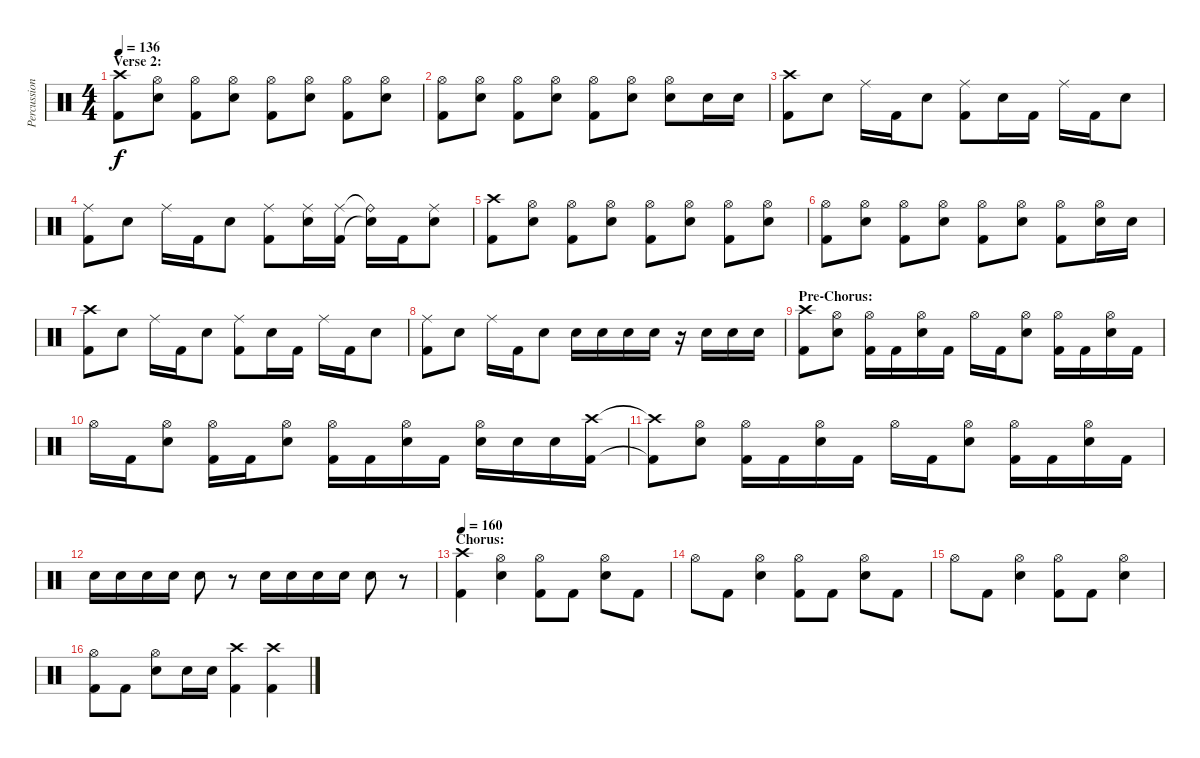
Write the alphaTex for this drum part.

\track ("Percussion" "Percussion") {instrument percussion}
\staff {score}
\articulation defaults
\ts (4 4)
\section ("" "Verse 2:")
\tempo 136
\clef neutral
\ks c
("Crash high (hit)" "Kick (hit) 2").8{dy f} ("Hi-Hat (open)" "Electric Snare (hit)").8 ("Hi-Hat (open)" "Kick (hit) 2").8 ("Hi-Hat (open)" "Electric Snare (hit)").8 ("Hi-Hat (open)" "Kick (hit) 2").8 ("Hi-Hat (open)" "Electric Snare (hit)").8 ("Hi-Hat (open)" "Kick (hit) 2").8 ("Hi-Hat (open)" "Electric Snare (hit)").8 |
("Hi-Hat (open)" "Kick (hit) 2").8 ("Hi-Hat (open)" "Electric Snare (hit)").8 ("Hi-Hat (open)" "Kick (hit) 2").8 ("Hi-Hat (open)" "Electric Snare (hit)").8 ("Hi-Hat (open)" "Kick (hit) 2").8 ("Hi-Hat (open)" "Electric Snare (hit)").8 ("Hi-Hat (open)" "Electric Snare (hit)").8 "Electric Snare (hit)".16 "Electric Snare (hit)".16 |
("Crash high (hit)" "Kick (hit) 2").8 "Electric Snare (hit)".8 "Ride (middle)".16 "Kick (hit) 2".16 "Electric Snare (hit)".8 ("Ride (middle)" "Kick (hit) 2").8 "Electric Snare (hit)".16 "Kick (hit) 2".16 "Ride (middle)".16 "Kick (hit) 2".16 "Electric Snare (hit)".8 |
("Ride (middle)" "Kick (hit) 2").8 "Electric Snare (hit)".8 "Ride (middle)".16 "Kick (hit) 2".16 "Electric Snare (hit)".8 ("Ride (middle)" "Kick (hit) 2").8 ("Ride (middle)" "Electric Snare (hit)").16 ("Ride (middle)" "Kick (hit) 2").16 ("Ride (bell)"{t} "Snare (hit)"{t}).16 "Kick (hit) 2".16 ("Ride (middle)" "Electric Snare (hit)").8 |
("Crash high (hit)" "Kick (hit) 2").8 ("Hi-Hat (open)" "Electric Snare (hit)").8 ("Hi-Hat (open)" "Kick (hit) 2").8 ("Hi-Hat (open)" "Electric Snare (hit)").8 ("Hi-Hat (open)" "Kick (hit) 2").8 ("Hi-Hat (open)" "Electric Snare (hit)").8 ("Hi-Hat (open)" "Kick (hit) 2").8 ("Hi-Hat (open)" "Electric Snare (hit)").8 |
("Hi-Hat (open)" "Kick (hit) 2").8 ("Hi-Hat (open)" "Electric Snare (hit)").8 ("Hi-Hat (open)" "Kick (hit) 2").8 ("Hi-Hat (open)" "Electric Snare (hit)").8 ("Hi-Hat (open)" "Kick (hit) 2").8 ("Hi-Hat (open)" "Electric Snare (hit)").8 ("Hi-Hat (open)" "Kick (hit) 2").8 ("Hi-Hat (open)" "Electric Snare (hit)").16 "Electric Snare (hit)".16 |
("Crash high (hit)" "Kick (hit) 2").8 "Electric Snare (hit)".8 "Ride (middle)".16 "Kick (hit) 2".16 "Electric Snare (hit)".8 ("Ride (middle)" "Kick (hit) 2").8 "Electric Snare (hit)".16 "Kick (hit) 2".16 "Ride (middle)".16 "Kick (hit) 2".16 "Electric Snare (hit)".8 |
("Ride (middle)" "Kick (hit) 2").8 "Electric Snare (hit)".8 "Ride (middle)".16 "Kick (hit) 2".16 "Electric Snare (hit)".8 "Electric Snare (hit)".16 "Electric Snare (hit)".16 "Electric Snare (hit)".16 "Electric Snare (hit)".16 r.16 "Electric Snare (hit)".16 "Electric Snare (hit)".16 "Electric Snare (hit)".16 |
\section ("" "Pre-Chorus:")
("Crash high (hit)" "Kick (hit) 2").8 ("Hi-Hat (open)" "Electric Snare (hit)").8 ("Hi-Hat (open)" "Kick (hit) 2").16 "Kick (hit) 2".16 ("Hi-Hat (open)" "Electric Snare (hit)").16 "Kick (hit) 2".16 "Hi-Hat (open)".16 "Kick (hit) 2".16 ("Hi-Hat (open)" "Electric Snare (hit)").8 ("Hi-Hat (open)" "Kick (hit) 2").16 "Kick (hit) 2".16 ("Hi-Hat (open)" "Electric Snare (hit)").16 "Kick (hit) 2".16 |
"Hi-Hat (open)".16 "Kick (hit) 2".16 ("Hi-Hat (open)" "Electric Snare (hit)").8 ("Hi-Hat (open)" "Kick (hit) 2").16 "Kick (hit) 2".16 ("Hi-Hat (open)" "Electric Snare (hit)").8 ("Hi-Hat (open)" "Kick (hit) 2").16 "Kick (hit) 2".16 ("Hi-Hat (open)" "Electric Snare (hit)").16 "Kick (hit) 2".16 ("Hi-Hat (open)" "Electric Snare (hit)").16 "Electric Snare (hit)".16 "Electric Snare (hit)".16 ("Crash high (hit)" "Kick (hit) 2").16 |
("Crash high (hit)"{t} "Kick (hit) 2"{t}).8 ("Hi-Hat (open)" "Electric Snare (hit)").8 ("Hi-Hat (open)" "Kick (hit) 2").16 "Kick (hit) 2".16 ("Hi-Hat (open)" "Electric Snare (hit)").16 "Kick (hit) 2".16 "Hi-Hat (open)".16 "Kick (hit) 2".16 ("Hi-Hat (open)" "Electric Snare (hit)").8 ("Hi-Hat (open)" "Kick (hit) 2").16 "Kick (hit) 2".16 ("Hi-Hat (open)" "Electric Snare (hit)").16 "Kick (hit) 2".16 |
"Electric Snare (hit)".16 "Electric Snare (hit)".16 "Electric Snare (hit)".16 "Electric Snare (hit)".16 "Electric Snare (hit)".8 r.8 "Electric Snare (hit)".16 "Electric Snare (hit)".16 "Electric Snare (hit)".16 "Electric Snare (hit)".16 "Electric Snare (hit)".8 r.8 |
\section ("" "Chorus:")
\tempo 160
("Crash high (hit)" "Kick (hit) 2").4 ("Hi-Hat (open)" "Electric Snare (hit)").4 ("Hi-Hat (open)" "Kick (hit) 2").8 "Kick (hit) 2".8 ("Hi-Hat (open)" "Electric Snare (hit)").8 "Kick (hit) 2".8 |
"Hi-Hat (open)".8 "Kick (hit) 2".8 ("Hi-Hat (open)" "Electric Snare (hit)").4 ("Hi-Hat (open)" "Kick (hit) 2").8 "Kick (hit) 2".8 ("Hi-Hat (open)" "Electric Snare (hit)").8 "Kick (hit) 2".8 |
"Hi-Hat (open)".8 "Kick (hit) 2".8 ("Hi-Hat (open)" "Electric Snare (hit)").4 ("Hi-Hat (open)" "Kick (hit) 2").8 "Kick (hit) 2".8 ("Hi-Hat (open)" "Electric Snare (hit)").4 |
("Hi-Hat (open)" "Kick (hit) 2").8 "Kick (hit) 2".8 ("Hi-Hat (open)" "Electric Snare (hit)").8 "Electric Snare (hit)".16 "Electric Snare (hit)".16 ("Crash high (hit)" "Kick (hit) 2").4 ("Crash high (hit)" "Kick (hit) 2").4
